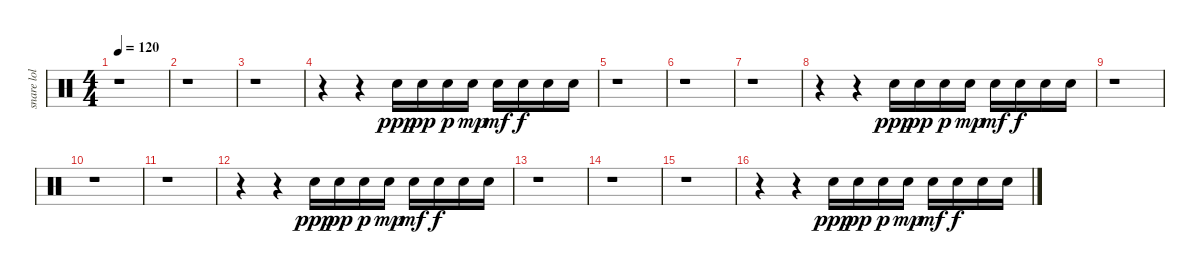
\track ("snare lol lazy" "snare lol ") {instrument percussion}
\staff {score}
\articulation defaults
\ts (4 4)
\tempo 120
\clef neutral
\ks c
r.1{dy f} |
r.1 |
r.1 |
r.4 r.4 "Snare (hit) 2".16{dy ppp} "Snare (hit) 2".16{dy pp} "Snare (hit) 2".16{dy p} "Snare (hit) 2".16{dy mp} "Snare (hit) 2".16{dy mf} "Snare (hit) 2".16{dy f} "Snare (hit) 2".16 "Snare (hit) 2".16 |
r.1 |
r.1 |
r.1 |
r.4 r.4 "Snare (hit) 2".16{dy ppp} "Snare (hit) 2".16{dy pp} "Snare (hit) 2".16{dy p} "Snare (hit) 2".16{dy mp} "Snare (hit) 2".16{dy mf} "Snare (hit) 2".16{dy f} "Snare (hit) 2".16 "Snare (hit) 2".16 |
r.1 |
r.1 |
r.1 |
r.4 r.4 "Snare (hit) 2".16{dy ppp} "Snare (hit) 2".16{dy pp} "Snare (hit) 2".16{dy p} "Snare (hit) 2".16{dy mp} "Snare (hit) 2".16{dy mf} "Snare (hit) 2".16{dy f} "Snare (hit) 2".16 "Snare (hit) 2".16 |
r.1 |
r.1 |
r.1 |
r.4 r.4 "Snare (hit) 2".16{dy ppp} "Snare (hit) 2".16{dy pp} "Snare (hit) 2".16{dy p} "Snare (hit) 2".16{dy mp} "Snare (hit) 2".16{dy mf} "Snare (hit) 2".16{dy f} "Snare (hit) 2".16 "Snare (hit) 2".16
